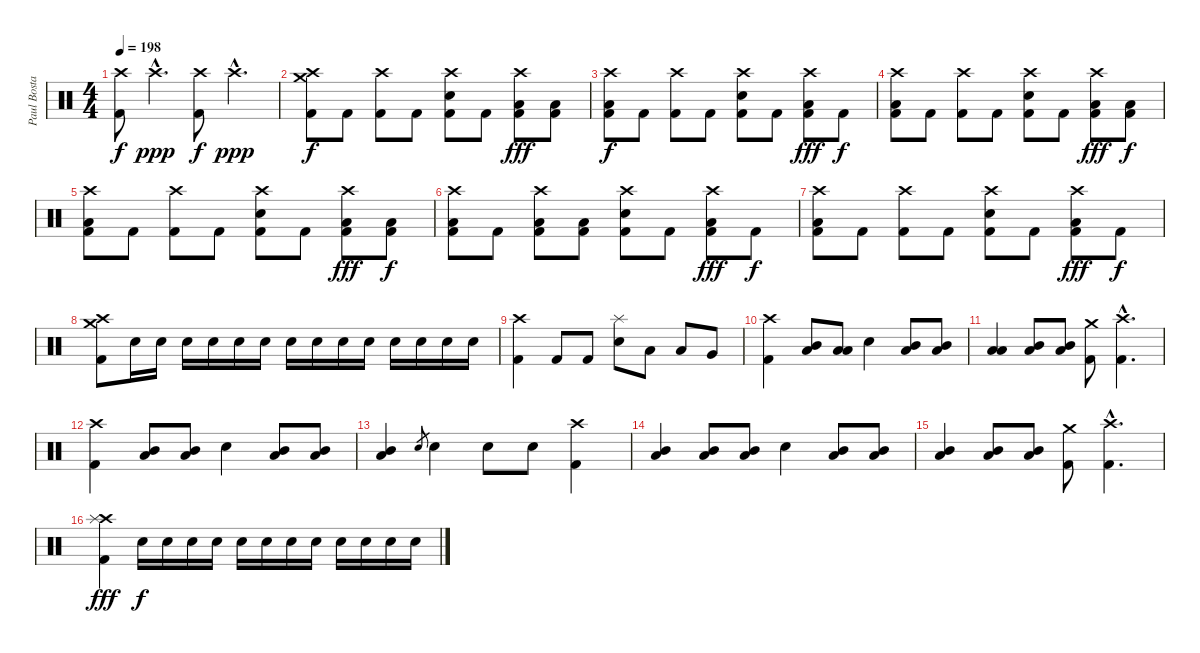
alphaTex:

\track ("Paul Bostaph" "Paul Bosta") {instrument percussion}
\staff {score}
\articulation defaults
\ts (4 4)
\tempo 198
\clef neutral
\ks c
("Crash high (hit)" "Kick (hit) 2").8{dy f} "Crash high (hit)"{hac}.4{d dy ppp} ("Crash high (hit)" "Kick (hit) 2").8{dy f} "Crash high (hit)"{hac}.4{d dy ppp} |
("Crash medium (hit)" "Crash high (hit)" "Kick (hit) 2").8{dy f} "Kick (hit) 2".8 ("Crash high (hit)" "Kick (hit) 2").8 "Kick (hit) 2".8 ("Crash high (hit)" "Kick (hit) 2" "Electric Snare (hit)").8 "Kick (hit) 2".8 ("Crash high (hit)" "Kick (hit) 2" "Low Tom (hit)").8{dy fff} ("Kick (hit) 2" "Low Tom (hit)").8 |
("Crash high (hit)" "Kick (hit) 2" "Low Tom (hit)").8{dy f} "Kick (hit) 2".8 ("Crash high (hit)" "Kick (hit) 2").8 "Kick (hit) 2".8 ("Crash high (hit)" "Kick (hit) 2" "Electric Snare (hit)").8 "Kick (hit) 2".8 ("Crash high (hit)" "Kick (hit) 2" "Low Tom (hit)").8{dy fff} "Kick (hit) 2".8{dy f} |
("Crash high (hit)" "Kick (hit) 2" "Low Tom (hit)").8 "Kick (hit) 2".8 ("Crash high (hit)" "Kick (hit) 2").8 "Kick (hit) 2".8 ("Crash high (hit)" "Kick (hit) 2" "Electric Snare (hit)").8 "Kick (hit) 2".8 ("Crash high (hit)" "Kick (hit) 2" "Low Tom (hit)").8{dy fff} ("Kick (hit) 2" "Low Tom (hit)").8{dy f} |
("Crash high (hit)" "Kick (hit) 2" "Low Tom (hit)").8 "Kick (hit) 2".8 ("Crash high (hit)" "Kick (hit) 2").8 "Kick (hit) 2".8 ("Crash high (hit)" "Kick (hit) 2" "Electric Snare (hit)").8 "Kick (hit) 2".8 ("Crash high (hit)" "Kick (hit) 2" "Low Tom (hit)").8{dy fff} ("Kick (hit) 2" "Low Tom (hit)").8{dy f} |
("Crash high (hit)" "Kick (hit) 2" "Low Tom (hit)").8 "Kick (hit) 2".8 ("Crash high (hit)" "Kick (hit) 2" "Low Tom (hit)").8 ("Kick (hit) 2" "Low Tom (hit)").8 ("Crash high (hit)" "Kick (hit) 2" "Electric Snare (hit)").8 "Kick (hit) 2".8 ("Crash high (hit)" "Kick (hit) 2" "Low Tom (hit)").8{dy fff} "Kick (hit) 2".8{dy f} |
("Crash high (hit)" "Kick (hit) 2" "Low Tom (hit)").8 "Kick (hit) 2".8 ("Crash high (hit)" "Kick (hit) 2").8 "Kick (hit) 2".8 ("Crash high (hit)" "Kick (hit) 2" "Electric Snare (hit)").8 "Kick (hit) 2".8 ("Crash high (hit)" "Kick (hit) 2" "Low Tom (hit)").8{dy fff} "Kick (hit) 2".8{dy f} |
("Crash medium (hit)" "Crash high (hit)" "Kick (hit) 2").8 "Electric Snare (hit)".16 "Electric Snare (hit)".16 "Electric Snare (hit)".16 "Electric Snare (hit)".16 "Electric Snare (hit)".16 "Electric Snare (hit)".16 "Electric Snare (hit)".16 "Electric Snare (hit)".16 "Electric Snare (hit)".16 "Electric Snare (hit)".16 "Electric Snare (hit)".16 "Electric Snare (hit)".16 "Electric Snare (hit)".16 "Electric Snare (hit)".16 |
("Crash high (hit)" "Kick (hit) 2").4 "Kick (hit) 2".8 "Kick (hit) 2".8 ("Splash (hit)" "Electric Snare (hit)").8 "Low Tom (hit)".8 "Low Tom (hit)".8 "Very Low Tom (hit)".8 |
("Crash high (hit)" "Kick (hit) 2").4 ("Mid Tom (hit)" "Low Tom (hit)").8 ("Low Tom (hit)" "Low Tom (hit)").8 "Electric Snare (hit)".4 ("Low Tom (hit)" "Mid Tom (hit)").8 ("Low Tom (hit)" "Mid Tom (hit)").8 |
("Low Tom (hit)" "Low Tom (hit)").4 ("Low Tom (hit)" "Mid Tom (hit)").8 ("Mid Tom (hit)" "Low Tom (hit)").8 ("Crash medium (hit)" "Kick (hit) 2").8 ("Crash high (hit)"{hac} "Kick (hit) 2"{hac}).4{d} |
("Crash high (hit)" "Kick (hit) 2").4 ("Low Tom (hit)" "Mid Tom (hit)").8 ("Low Tom (hit)" "Mid Tom (hit)").8 "Electric Snare (hit)".4 ("Mid Tom (hit)" "Low Tom (hit)").8 ("Mid Tom (hit)" "Low Tom (hit)").8 |
("Mid Tom (hit)" "Low Tom (hit)").4 "Electric Snare (hit)".8{gr} "Electric Snare (hit)".4 "Electric Snare (hit)".8 "Electric Snare (hit)".8 ("Crash high (hit)" "Kick (hit) 2").4 |
("Mid Tom (hit)" "Low Tom (hit)").4 ("Mid Tom (hit)" "Low Tom (hit)").8 ("Mid Tom (hit)" "Low Tom (hit)").8 "Electric Snare (hit)".4 ("Low Tom (hit)" "Mid Tom (hit)").8 ("Low Tom (hit)" "Mid Tom (hit)").8 |
("Mid Tom (hit)" "Low Tom (hit)").4 ("Low Tom (hit)" "Mid Tom (hit)").8 ("Mid Tom (hit)" "Low Tom (hit)").8 ("Crash medium (hit)" "Kick (hit) 2").8 ("Crash high (hit)"{hac} "Kick (hit) 2"{hac}).4{d} |
("Crash high (hit)" "Splash (hit)" "Kick (hit) 2").4{dy fff} "Electric Snare (hit)".16{dy f} "Electric Snare (hit)".16 "Electric Snare (hit)".16 "Electric Snare (hit)".16 "Electric Snare (hit)".16 "Electric Snare (hit)".16 "Electric Snare (hit)".16 "Electric Snare (hit)".16 "Electric Snare (hit)".16 "Electric Snare (hit)".16 "Electric Snare (hit)".16 "Electric Snare (hit)".16
